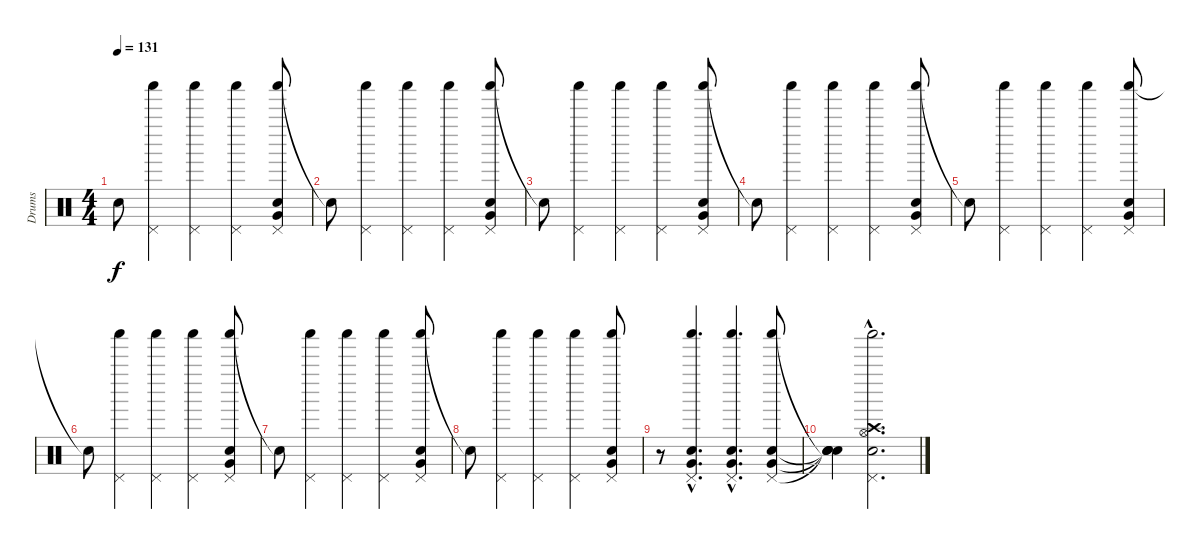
\track ("Drums" "Drums") {instrument percussion}
\staff {score}
\articulation defaults
\ts (4 4)
\tempo 131
\clef neutral
\ks c "Snare (hit) 2"{t}.8{dy f}
("Shaker (hit)" "Pedal Hi-Hat (hit)").4 ("Shaker (hit)" "Pedal Hi-Hat (hit)").4 ("Shaker (hit)" "Pedal Hi-Hat (hit)").4 ("Shaker (hit)" "Pedal Hi-Hat (hit)" "Snare (hit) 2" "Very Low Tom (hit)").8 |
"Snare (hit) 2"{t}.8 ("Shaker (hit)" "Pedal Hi-Hat (hit)").4 ("Shaker (hit)" "Pedal Hi-Hat (hit)").4 ("Shaker (hit)" "Pedal Hi-Hat (hit)").4 ("Shaker (hit)" "Pedal Hi-Hat (hit)" "Snare (hit) 2" "Very Low Tom (hit)").8 |
"Snare (hit) 2"{t}.8 ("Shaker (hit)" "Pedal Hi-Hat (hit)").4 ("Shaker (hit)" "Pedal Hi-Hat (hit)").4 ("Shaker (hit)" "Pedal Hi-Hat (hit)").4 ("Shaker (hit)" "Pedal Hi-Hat (hit)" "Snare (hit) 2" "Very Low Tom (hit)").8 |
"Snare (hit) 2"{t}.8 ("Shaker (hit)" "Pedal Hi-Hat (hit)").4 ("Shaker (hit)" "Pedal Hi-Hat (hit)").4 ("Shaker (hit)" "Pedal Hi-Hat (hit)").4 ("Shaker (hit)" "Pedal Hi-Hat (hit)" "Snare (hit) 2" "Very Low Tom (hit)").8 |
"Snare (hit) 2"{t}.8 ("Shaker (hit)" "Pedal Hi-Hat (hit)").4 ("Shaker (hit)" "Pedal Hi-Hat (hit)").4 ("Shaker (hit)" "Pedal Hi-Hat (hit)").4 ("Shaker (hit)" "Pedal Hi-Hat (hit)" "Snare (hit) 2" "Very Low Tom (hit)").8 |
"Snare (hit) 2"{t}.8 ("Shaker (hit)" "Pedal Hi-Hat (hit)").4 ("Shaker (hit)" "Pedal Hi-Hat (hit)").4 ("Shaker (hit)" "Pedal Hi-Hat (hit)").4 ("Shaker (hit)" "Pedal Hi-Hat (hit)" "Snare (hit) 2" "Very Low Tom (hit)").8 |
"Snare (hit) 2"{t}.8 ("Shaker (hit)" "Pedal Hi-Hat (hit)").4 ("Shaker (hit)" "Pedal Hi-Hat (hit)").4 ("Shaker (hit)" "Pedal Hi-Hat (hit)").4 ("Shaker (hit)" "Pedal Hi-Hat (hit)" "Snare (hit) 2" "Very Low Tom (hit)").8 |
"Snare (hit) 2"{t}.8 ("Shaker (hit)" "Pedal Hi-Hat (hit)").4 ("Shaker (hit)" "Pedal Hi-Hat (hit)").4 ("Shaker (hit)" "Pedal Hi-Hat (hit)").4 ("Shaker (hit)" "Pedal Hi-Hat (hit)" "Snare (hit) 2" "Very Low Tom (hit)").8 |
r.8 ("Shaker (hit)"{hac} "Pedal Hi-Hat (hit)"{hac} "Snare (hit) 2"{hac} "Very Low Tom (hit)"{hac}).4{d} ("Shaker (hit)"{hac} "Pedal Hi-Hat (hit)"{hac} "Snare (hit) 2"{hac} "Very Low Tom (hit)"{hac}).4{d} ("Shaker (hit)" "Pedal Hi-Hat (hit)" "Snare (hit) 2" "Very Low Tom (hit)").8 |
("Snare (hit)"{t} "Snare (hit)"{t} "Snare (hit)"{t} "Snare (hit)"{t}).4 ("Shaker (hit)"{hac} "Pedal Hi-Hat (hit)"{hac} "Snare (hit) 2"{hac} "Hi-Hat (open)"{hac} "Crash high (hit)"{hac}).2{d}
